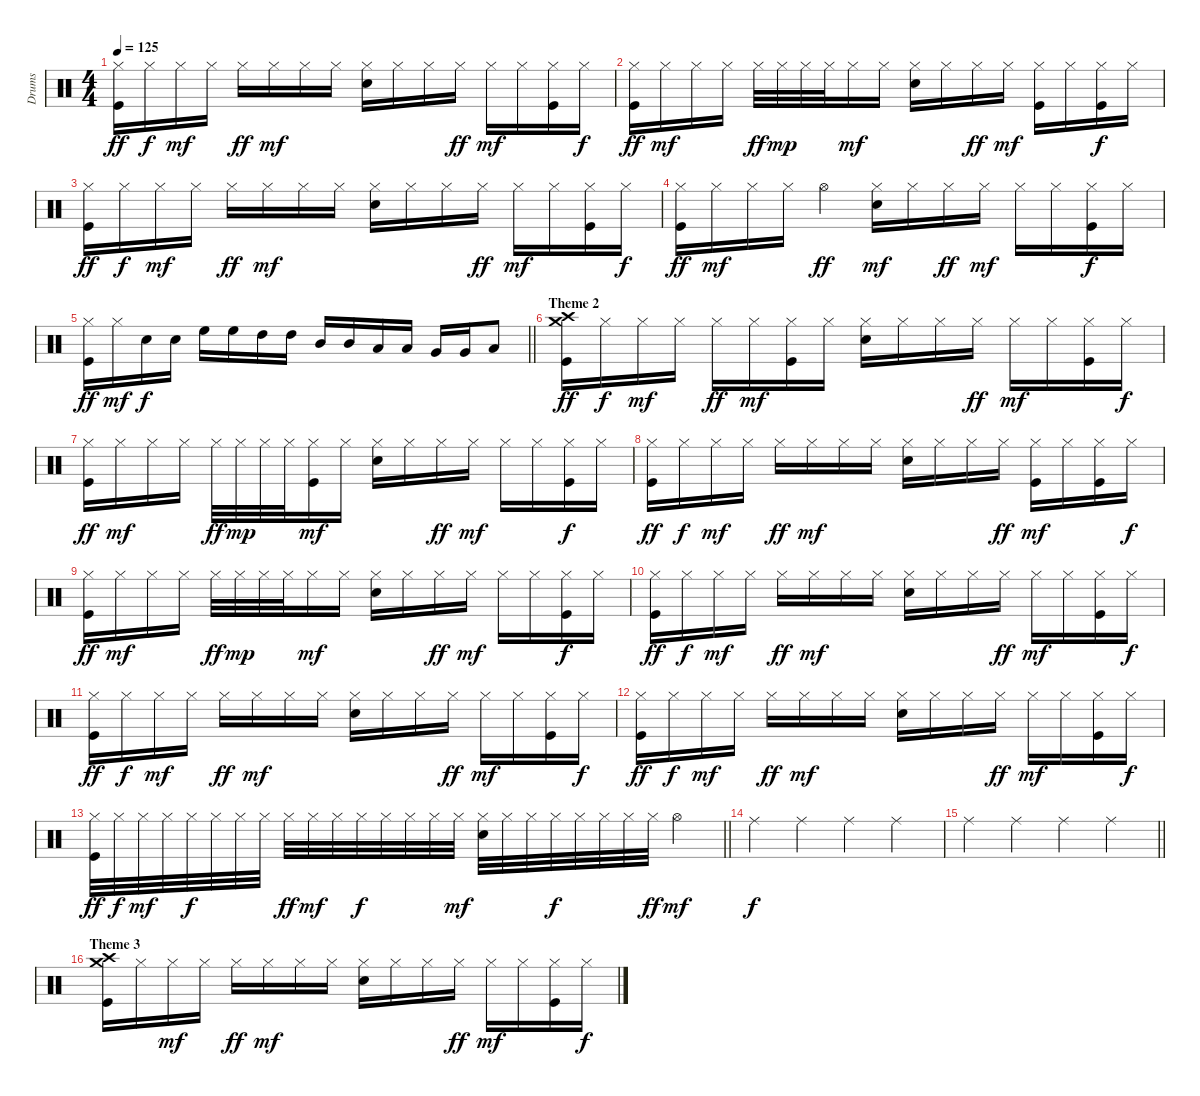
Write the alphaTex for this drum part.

\track ("Drums" "Drums") {instrument percussion}
\staff {score}
\articulation defaults
\ts (4 4)
\tempo 125
\clef neutral
\ks c
("Hi-Hat (closed)" "Kick (hit)").16{dy ff} "Hi-Hat (closed)".16{dy f} "Hi-Hat (closed)".16{dy mf} "Hi-Hat (closed)".16 "Hi-Hat (closed)".16{dy ff} "Hi-Hat (closed)".16{dy mf} "Hi-Hat (closed)".16 "Hi-Hat (closed)".16 ("Hi-Hat (closed)" "Electric Snare (hit)").16 "Hi-Hat (closed)".16 "Hi-Hat (closed)".16 "Hi-Hat (closed)".16{dy ff} "Hi-Hat (closed)".16{dy mf} "Hi-Hat (closed)".16 ("Hi-Hat (closed)" "Kick (hit)").16 "Hi-Hat (closed)".16{dy f} |
("Kick (hit)" "Hi-Hat (closed)").16{dy ff} "Hi-Hat (closed)".16{dy mf} "Hi-Hat (closed)".16 "Hi-Hat (closed)".16 "Hi-Hat (closed)".32{dy ff} "Hi-Hat (closed)".32{dy mp} "Hi-Hat (closed)".32 "Hi-Hat (closed)".32 "Hi-Hat (closed)".16{dy mf} "Hi-Hat (closed)".16 ("Hi-Hat (closed)" "Electric Snare (hit)").16 "Hi-Hat (closed)".16 "Hi-Hat (closed)".16{dy ff} "Hi-Hat (closed)".16{dy mf} ("Hi-Hat (closed)" "Kick (hit)").16 "Hi-Hat (closed)".16 ("Hi-Hat (closed)" "Kick (hit)").16{dy f} "Hi-Hat (closed)".16 |
("Hi-Hat (closed)" "Kick (hit)").16{dy ff} "Hi-Hat (closed)".16{dy f} "Hi-Hat (closed)".16{dy mf} "Hi-Hat (closed)".16 "Hi-Hat (closed)".16{dy ff} "Hi-Hat (closed)".16{dy mf} "Hi-Hat (closed)".16 "Hi-Hat (closed)".16 ("Hi-Hat (closed)" "Electric Snare (hit)").16 "Hi-Hat (closed)".16 "Hi-Hat (closed)".16 "Hi-Hat (closed)".16{dy ff} "Hi-Hat (closed)".16{dy mf} "Hi-Hat (closed)".16 ("Hi-Hat (closed)" "Kick (hit)").16 "Hi-Hat (closed)".16{dy f} |
("Kick (hit)" "Hi-Hat (closed)").16{dy ff} "Hi-Hat (closed)".16{dy mf} "Hi-Hat (closed)".16 "Hi-Hat (closed)".16 "Hi-Hat (open)".4{dy ff} ("Hi-Hat (closed)" "Electric Snare (hit)").16{dy mf} "Hi-Hat (closed)".16 "Hi-Hat (closed)".16{dy ff} "Hi-Hat (closed)".16{dy mf} "Hi-Hat (closed)".16 "Hi-Hat (closed)".16 ("Hi-Hat (closed)" "Kick (hit)").16{dy f} "Hi-Hat (closed)".16 |
\barLineRight lightlight
("Kick (hit)" "Hi-Hat (closed)").16{dy ff} "Hi-Hat (closed)".16{dy mf} "Electric Snare (hit)".16{dy f} "Electric Snare (hit)".16 "High Floor Tom (hit)".16 "High Floor Tom (hit)".16 "High Tom (hit)".16 "High Tom (hit)".16 "Mid Tom (hit)".16 "Mid Tom (hit)".16 "Low Tom (hit)".16 "Low Tom (hit)".16 "Very Low Tom (hit)".16 "Very Low Tom (hit)".16 "Low Floor Tom (hit)".8 |
\section ("" "Theme 2")
("Kick (hit)" "Crash high (hit)" "Crash medium (hit)").16{dy ff} "Hi-Hat (closed)".16{dy f} "Hi-Hat (closed)".16{dy mf} "Hi-Hat (closed)".16 "Hi-Hat (closed)".16{dy ff} "Hi-Hat (closed)".16{dy mf} ("Hi-Hat (closed)" "Kick (hit)").16 "Hi-Hat (closed)".16 ("Hi-Hat (closed)" "Electric Snare (hit)").16 "Hi-Hat (closed)".16 "Hi-Hat (closed)".16 "Hi-Hat (closed)".16{dy ff} "Hi-Hat (closed)".16{dy mf} "Hi-Hat (closed)".16 ("Hi-Hat (closed)" "Kick (hit)").16 "Hi-Hat (closed)".16{dy f} |
("Kick (hit)" "Hi-Hat (closed)").16{dy ff} "Hi-Hat (closed)".16{dy mf} "Hi-Hat (closed)".16 "Hi-Hat (closed)".16 "Hi-Hat (closed)".32{dy ff} "Hi-Hat (closed)".32{dy mp} "Hi-Hat (closed)".32 "Hi-Hat (closed)".32 ("Hi-Hat (closed)" "Kick (hit)").16{dy mf} "Hi-Hat (closed)".16 ("Hi-Hat (closed)" "Electric Snare (hit)").16 "Hi-Hat (closed)".16 "Hi-Hat (closed)".16{dy ff} "Hi-Hat (closed)".16{dy mf} "Hi-Hat (closed)".16 "Hi-Hat (closed)".16 ("Hi-Hat (closed)" "Kick (hit)").16{dy f} "Hi-Hat (closed)".16 |
("Hi-Hat (closed)" "Kick (hit)").16{dy ff} "Hi-Hat (closed)".16{dy f} "Hi-Hat (closed)".16{dy mf} "Hi-Hat (closed)".16 "Hi-Hat (closed)".16{dy ff} "Hi-Hat (closed)".16{dy mf} "Hi-Hat (closed)".16 "Hi-Hat (closed)".16 ("Hi-Hat (closed)" "Electric Snare (hit)").16 "Hi-Hat (closed)".16 "Hi-Hat (closed)".16 "Hi-Hat (closed)".16{dy ff} ("Hi-Hat (closed)" "Kick (hit)").16{dy mf} "Hi-Hat (closed)".16 ("Hi-Hat (closed)" "Kick (hit)").16 "Hi-Hat (closed)".16{dy f} |
("Kick (hit)" "Hi-Hat (closed)").16{dy ff} "Hi-Hat (closed)".16{dy mf} "Hi-Hat (closed)".16 "Hi-Hat (closed)".16 "Hi-Hat (closed)".32{dy ff} "Hi-Hat (closed)".32{dy mp} "Hi-Hat (closed)".32 "Hi-Hat (closed)".32 "Hi-Hat (closed)".16{dy mf} "Hi-Hat (closed)".16 ("Hi-Hat (closed)" "Electric Snare (hit)").16 "Hi-Hat (closed)".16 "Hi-Hat (closed)".16{dy ff} "Hi-Hat (closed)".16{dy mf} "Hi-Hat (closed)".16 "Hi-Hat (closed)".16 ("Hi-Hat (closed)" "Kick (hit)").16{dy f} "Hi-Hat (closed)".16 |
("Hi-Hat (closed)" "Kick (hit)").16{dy ff} "Hi-Hat (closed)".16{dy f} "Hi-Hat (closed)".16{dy mf} "Hi-Hat (closed)".16 "Hi-Hat (closed)".16{dy ff} "Hi-Hat (closed)".16{dy mf} "Hi-Hat (closed)".16 "Hi-Hat (closed)".16 ("Hi-Hat (closed)" "Electric Snare (hit)").16 "Hi-Hat (closed)".16 "Hi-Hat (closed)".16 "Hi-Hat (closed)".16{dy ff} "Hi-Hat (closed)".16{dy mf} "Hi-Hat (closed)".16 ("Hi-Hat (closed)" "Kick (hit)").16 "Hi-Hat (closed)".16{dy f} |
("Hi-Hat (closed)" "Kick (hit)").16{dy ff} "Hi-Hat (closed)".16{dy f} "Hi-Hat (closed)".16{dy mf} "Hi-Hat (closed)".16 "Hi-Hat (closed)".16{dy ff} "Hi-Hat (closed)".16{dy mf} "Hi-Hat (closed)".16 "Hi-Hat (closed)".16 ("Hi-Hat (closed)" "Electric Snare (hit)").16 "Hi-Hat (closed)".16 "Hi-Hat (closed)".16 "Hi-Hat (closed)".16{dy ff} "Hi-Hat (closed)".16{dy mf} "Hi-Hat (closed)".16 ("Hi-Hat (closed)" "Kick (hit)").16 "Hi-Hat (closed)".16{dy f} |
("Hi-Hat (closed)" "Kick (hit)").16{dy ff} "Hi-Hat (closed)".16{dy f} "Hi-Hat (closed)".16{dy mf} "Hi-Hat (closed)".16 "Hi-Hat (closed)".16{dy ff} "Hi-Hat (closed)".16{dy mf} "Hi-Hat (closed)".16 "Hi-Hat (closed)".16 ("Hi-Hat (closed)" "Electric Snare (hit)").16 "Hi-Hat (closed)".16 "Hi-Hat (closed)".16 "Hi-Hat (closed)".16{dy ff} "Hi-Hat (closed)".16{dy mf} "Hi-Hat (closed)".16 ("Hi-Hat (closed)" "Kick (hit)").16 "Hi-Hat (closed)".16{dy f} |
\barLineRight lightlight
("Hi-Hat (closed)" "Kick (hit)").32{dy ff} "Hi-Hat (closed)".32{dy f} "Hi-Hat (closed)".32{dy mf} "Hi-Hat (closed)".32 "Hi-Hat (closed)".32{dy f} "Hi-Hat (closed)".32 "Hi-Hat (closed)".32 "Hi-Hat (closed)".32 "Hi-Hat (closed)".32{dy ff} "Hi-Hat (closed)".32{dy mf} "Hi-Hat (closed)".32 "Hi-Hat (closed)".32{dy f} "Hi-Hat (closed)".32 "Hi-Hat (closed)".32 "Hi-Hat (closed)".32 "Hi-Hat (closed)".32{dy mf} ("Hi-Hat (closed)" "Electric Snare (hit)").32 "Hi-Hat (closed)".32 "Hi-Hat (closed)".32 "Hi-Hat (closed)".32{dy f} "Hi-Hat (closed)".32 "Hi-Hat (closed)".32 "Hi-Hat (closed)".32 "Hi-Hat (closed)".32{dy ff} "Hi-Hat (open)".4{dy mf} |
"Ride (middle)".4{dy f} "Ride (middle)".4 "Ride (middle)".4 "Ride (middle)".4 |
\barLineRight lightlight "Ride (middle)".4 "Ride (middle)".4 "Ride (middle)".4 "Ride (middle)".4
|
\section ("" "Theme 3")
("Kick (hit)" "Crash medium (hit)" "Crash high (hit)").16 "Hi-Hat (closed)".16 "Hi-Hat (closed)".16{dy mf} "Hi-Hat (closed)".16 "Hi-Hat (closed)".16{dy ff} "Hi-Hat (closed)".16{dy mf} "Hi-Hat (closed)".16 "Hi-Hat (closed)".16 ("Hi-Hat (closed)" "Electric Snare (hit)").16 "Hi-Hat (closed)".16 "Hi-Hat (closed)".16 "Hi-Hat (closed)".16{dy ff} "Hi-Hat (closed)".16{dy mf} "Hi-Hat (closed)".16 ("Hi-Hat (closed)" "Kick (hit)").16 "Hi-Hat (closed)".16{dy f}
